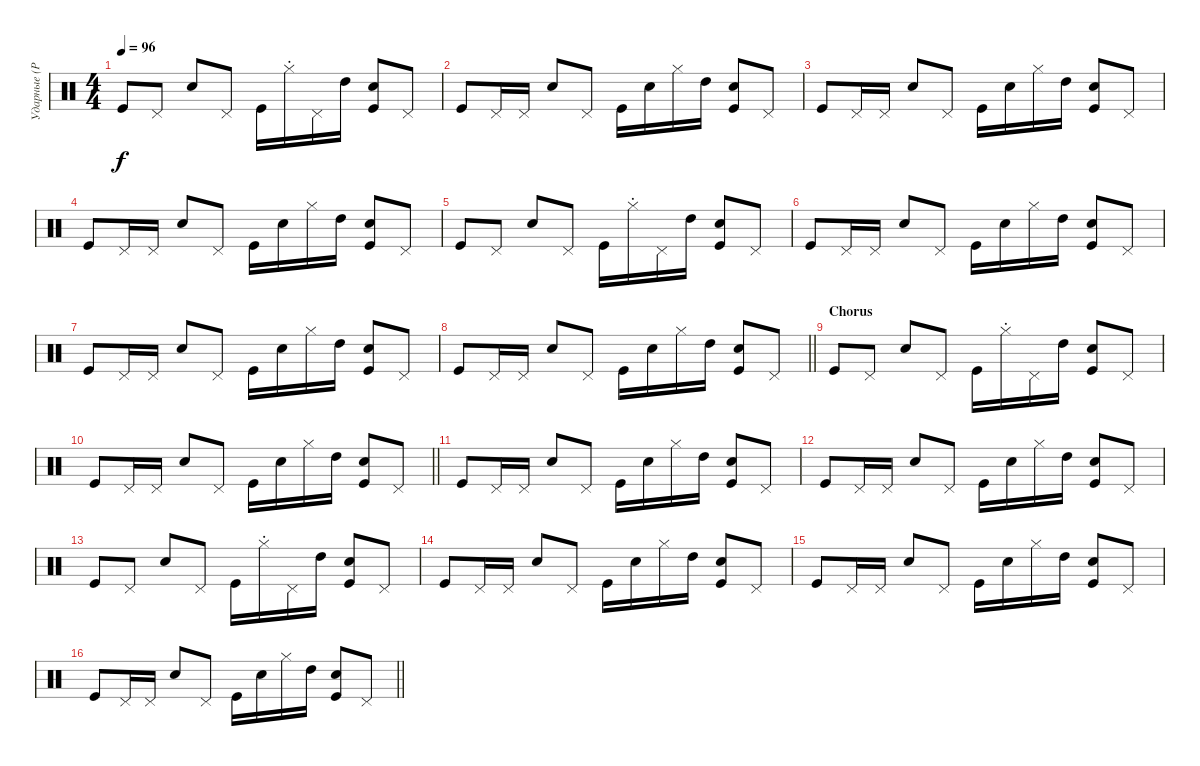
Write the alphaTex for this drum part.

\track ("Ударные (Phil Collins)" "Ударные (P") {instrument percussion}
\staff {score}
\articulation defaults
\ts (4 4)
\tempo 96
\clef neutral
\ks c "Kick (hit)".8{dy f} "Pedal Hi-Hat (hit)".8 "Electric Snare (hit)".8 "Pedal Hi-Hat (hit)".8 "Kick (hit)".16 "Hi-Hat (closed)"{st}.16 "Pedal Hi-Hat (hit)".16 "High Tom (hit)".16
("Electric Snare (hit)" "Kick (hit)").8 "Pedal Hi-Hat (hit)".8 |
"Kick (hit)".8 "Pedal Hi-Hat (hit)".16 "Pedal Hi-Hat (hit)".16 "Electric Snare (hit)".8 "Pedal Hi-Hat (hit)".8 "Kick (hit)".16 "Electric Snare (hit)".16 "Hi-Hat (closed)".16 "High Tom (hit)".16 ("Electric Snare (hit)" "Kick (hit)").8 "Pedal Hi-Hat (hit)".8 |
"Kick (hit)".8 "Pedal Hi-Hat (hit)".16 "Pedal Hi-Hat (hit)".16 "Electric Snare (hit)".8 "Pedal Hi-Hat (hit)".8 "Kick (hit)".16 "Electric Snare (hit)".16 "Hi-Hat (closed)".16 "High Tom (hit)".16 ("Electric Snare (hit)" "Kick (hit)").8 "Pedal Hi-Hat (hit)".8 |
"Kick (hit)".8 "Pedal Hi-Hat (hit)".16 "Pedal Hi-Hat (hit)".16 "Electric Snare (hit)".8 "Pedal Hi-Hat (hit)".8 "Kick (hit)".16 "Electric Snare (hit)".16 "Hi-Hat (closed)".16 "High Tom (hit)".16 ("Electric Snare (hit)" "Kick (hit)").8 "Pedal Hi-Hat (hit)".8 |
"Kick (hit)".8 "Pedal Hi-Hat (hit)".8 "Electric Snare (hit)".8 "Pedal Hi-Hat (hit)".8 "Kick (hit)".16 "Hi-Hat (closed)"{st}.16 "Pedal Hi-Hat (hit)".16 "High Tom (hit)".16 ("Electric Snare (hit)" "Kick (hit)").8 "Pedal Hi-Hat (hit)".8 |
"Kick (hit)".8 "Pedal Hi-Hat (hit)".16 "Pedal Hi-Hat (hit)".16 "Electric Snare (hit)".8 "Pedal Hi-Hat (hit)".8 "Kick (hit)".16 "Electric Snare (hit)".16 "Hi-Hat (closed)".16 "High Tom (hit)".16 ("Electric Snare (hit)" "Kick (hit)").8 "Pedal Hi-Hat (hit)".8 |
"Kick (hit)".8 "Pedal Hi-Hat (hit)".16 "Pedal Hi-Hat (hit)".16 "Electric Snare (hit)".8 "Pedal Hi-Hat (hit)".8 "Kick (hit)".16 "Electric Snare (hit)".16 "Hi-Hat (closed)".16 "High Tom (hit)".16 ("Electric Snare (hit)" "Kick (hit)").8 "Pedal Hi-Hat (hit)".8 |
\barLineRight lightlight "Kick (hit)".8 "Pedal Hi-Hat (hit)".16 "Pedal Hi-Hat (hit)".16 "Electric Snare (hit)".8 "Pedal Hi-Hat (hit)".8 "Kick (hit)".16 "Electric Snare (hit)".16 "Hi-Hat (closed)".16 "High Tom (hit)".16
("Electric Snare (hit)" "Kick (hit)").8 "Pedal Hi-Hat (hit)".8 |
\section ("" "Chorus")
"Kick (hit)".8 "Pedal Hi-Hat (hit)".8 "Electric Snare (hit)".8 "Pedal Hi-Hat (hit)".8 "Kick (hit)".16 "Hi-Hat (closed)"{st}.16 "Pedal Hi-Hat (hit)".16 "High Tom (hit)".16 ("Electric Snare (hit)" "Kick (hit)").8 "Pedal Hi-Hat (hit)".8 |
\barLineRight lightlight "Kick (hit)".8 "Pedal Hi-Hat (hit)".16 "Pedal Hi-Hat (hit)".16 "Electric Snare (hit)".8 "Pedal Hi-Hat (hit)".8 "Kick (hit)".16 "Electric Snare (hit)".16 "Hi-Hat (closed)".16 "High Tom (hit)".16
("Electric Snare (hit)" "Kick (hit)").8 "Pedal Hi-Hat (hit)".8 |
"Kick (hit)".8 "Pedal Hi-Hat (hit)".16 "Pedal Hi-Hat (hit)".16 "Electric Snare (hit)".8 "Pedal Hi-Hat (hit)".8 "Kick (hit)".16 "Electric Snare (hit)".16 "Hi-Hat (closed)".16 "High Tom (hit)".16 ("Electric Snare (hit)" "Kick (hit)").8 "Pedal Hi-Hat (hit)".8 |
"Kick (hit)".8 "Pedal Hi-Hat (hit)".16 "Pedal Hi-Hat (hit)".16 "Electric Snare (hit)".8 "Pedal Hi-Hat (hit)".8 "Kick (hit)".16 "Electric Snare (hit)".16 "Hi-Hat (closed)".16 "High Tom (hit)".16 ("Electric Snare (hit)" "Kick (hit)").8 "Pedal Hi-Hat (hit)".8 |
"Kick (hit)".8 "Pedal Hi-Hat (hit)".8 "Electric Snare (hit)".8 "Pedal Hi-Hat (hit)".8 "Kick (hit)".16 "Hi-Hat (closed)"{st}.16 "Pedal Hi-Hat (hit)".16 "High Tom (hit)".16 ("Electric Snare (hit)" "Kick (hit)").8 "Pedal Hi-Hat (hit)".8 |
"Kick (hit)".8 "Pedal Hi-Hat (hit)".16 "Pedal Hi-Hat (hit)".16 "Electric Snare (hit)".8 "Pedal Hi-Hat (hit)".8 "Kick (hit)".16 "Electric Snare (hit)".16 "Hi-Hat (closed)".16 "High Tom (hit)".16 ("Electric Snare (hit)" "Kick (hit)").8 "Pedal Hi-Hat (hit)".8 |
"Kick (hit)".8 "Pedal Hi-Hat (hit)".16 "Pedal Hi-Hat (hit)".16 "Electric Snare (hit)".8 "Pedal Hi-Hat (hit)".8 "Kick (hit)".16 "Electric Snare (hit)".16 "Hi-Hat (closed)".16 "High Tom (hit)".16 ("Electric Snare (hit)" "Kick (hit)").8 "Pedal Hi-Hat (hit)".8 |
\barLineRight lightlight "Kick (hit)".8 "Pedal Hi-Hat (hit)".16 "Pedal Hi-Hat (hit)".16 "Electric Snare (hit)".8 "Pedal Hi-Hat (hit)".8 "Kick (hit)".16 "Electric Snare (hit)".16 "Hi-Hat (closed)".16 "High Tom (hit)".16
("Electric Snare (hit)" "Kick (hit)").8 "Pedal Hi-Hat (hit)".8
